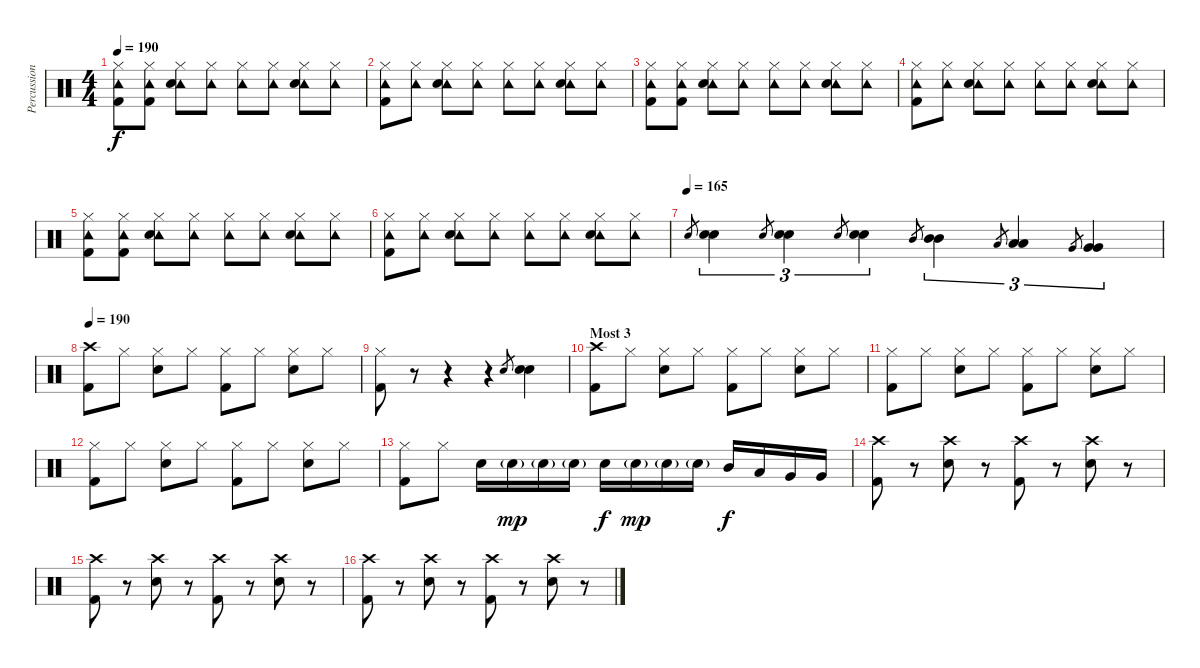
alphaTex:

\track ("Percussion" "Percussion") {instrument percussion}
\staff {score}
\articulation defaults
\ts (4 4)
\tempo 190
\clef neutral
\ks c
("Hi-Hat (closed)" "Tambourine (hit)" "Kick (hit) 2").8{dy f} ("Hi-Hat (closed)" "Tambourine (hit)" "Kick (hit) 2").8 ("Hi-Hat (closed)" "Tambourine (hit)" "Electric Snare (hit)").8 ("Hi-Hat (closed)" "Tambourine (hit)").8 ("Hi-Hat (closed)" "Tambourine (hit)").8 ("Hi-Hat (closed)" "Tambourine (hit)").8 ("Hi-Hat (closed)" "Tambourine (hit)" "Electric Snare (hit)").8 ("Hi-Hat (closed)" "Tambourine (hit)").8 |
("Hi-Hat (closed)" "Tambourine (hit)" "Kick (hit) 2").8 ("Hi-Hat (closed)" "Tambourine (hit)").8 ("Hi-Hat (closed)" "Tambourine (hit)" "Electric Snare (hit)").8 ("Hi-Hat (closed)" "Tambourine (hit)").8 ("Hi-Hat (closed)" "Tambourine (hit)").8 ("Hi-Hat (closed)" "Tambourine (hit)").8 ("Hi-Hat (closed)" "Tambourine (hit)" "Electric Snare (hit)").8 ("Hi-Hat (closed)" "Tambourine (hit)").8 |
("Hi-Hat (closed)" "Tambourine (hit)" "Kick (hit) 2").8 ("Hi-Hat (closed)" "Tambourine (hit)" "Kick (hit) 2").8 ("Hi-Hat (closed)" "Tambourine (hit)" "Electric Snare (hit)").8 ("Hi-Hat (closed)" "Tambourine (hit)").8 ("Hi-Hat (closed)" "Tambourine (hit)").8 ("Hi-Hat (closed)" "Tambourine (hit)").8 ("Hi-Hat (closed)" "Tambourine (hit)" "Electric Snare (hit)").8 ("Hi-Hat (closed)" "Tambourine (hit)").8 |
("Hi-Hat (closed)" "Tambourine (hit)" "Kick (hit) 2").8 ("Hi-Hat (closed)" "Tambourine (hit)").8 ("Hi-Hat (closed)" "Tambourine (hit)" "Electric Snare (hit)").8 ("Hi-Hat (closed)" "Tambourine (hit)").8 ("Hi-Hat (closed)" "Tambourine (hit)").8 ("Hi-Hat (closed)" "Tambourine (hit)").8 ("Hi-Hat (closed)" "Tambourine (hit)" "Electric Snare (hit)").8 ("Hi-Hat (closed)" "Tambourine (hit)").8 |
("Hi-Hat (closed)" "Tambourine (hit)" "Kick (hit) 2").8 ("Hi-Hat (closed)" "Tambourine (hit)" "Kick (hit) 2").8 ("Hi-Hat (closed)" "Tambourine (hit)" "Electric Snare (hit)").8 ("Hi-Hat (closed)" "Tambourine (hit)").8 ("Hi-Hat (closed)" "Tambourine (hit)").8 ("Hi-Hat (closed)" "Tambourine (hit)").8 ("Hi-Hat (closed)" "Tambourine (hit)" "Electric Snare (hit)").8 ("Hi-Hat (closed)" "Tambourine (hit)").8 |
("Hi-Hat (closed)" "Tambourine (hit)" "Kick (hit) 2").8 ("Hi-Hat (closed)" "Tambourine (hit)").8 ("Hi-Hat (closed)" "Tambourine (hit)" "Electric Snare (hit)").8 ("Hi-Hat (closed)" "Tambourine (hit)").8 ("Hi-Hat (closed)" "Tambourine (hit)").8 ("Hi-Hat (closed)" "Tambourine (hit)").8 ("Hi-Hat (closed)" "Tambourine (hit)" "Electric Snare (hit)").8 ("Hi-Hat (closed)" "Tambourine (hit)").8 |
\tempo (165)
"Electric Snare (hit)".8{gr} ("Electric Snare (hit)" "Electric Snare (hit)").4{tu (3 2)} "Electric Snare (hit)".8{gr} ("Electric Snare (hit)" "Electric Snare (hit)").4{tu (3 2)} "Electric Snare (hit)".8{gr} ("Electric Snare (hit)" "Electric Snare (hit)").4{tu (3 2)} "Mid Tom (hit)".8{gr} ("Mid Tom (hit)" "Mid Tom (hit)").4{tu (3 2)} "Low Tom (hit)".8{gr} ("Low Tom (hit)" "Low Tom (hit)").4{tu (3 2)} "Very Low Tom (hit)".8{gr} ("Very Low Tom (hit)" "Very Low Tom (hit)").4{tu (3 2)} |
\tempo 190
("Crash high (hit)" "Kick (hit) 2").8 "Hi-Hat (closed)".8 ("Hi-Hat (closed)" "Electric Snare (hit)").8 "Hi-Hat (closed)".8 ("Hi-Hat (closed)" "Kick (hit) 2").8 "Hi-Hat (closed)".8 ("Hi-Hat (closed)" "Electric Snare (hit)").8 "Hi-Hat (closed)".8 |
("Hi-Hat (closed)" "Kick (hit) 2").8 r.8 r.4 r.4 "Electric Snare (hit)".8{gr} ("Electric Snare (hit)" "Electric Snare (hit)").4 |
\section ("" "Most 3")
("Crash high (hit)" "Kick (hit) 2").8 "Hi-Hat (closed)".8 ("Hi-Hat (closed)" "Electric Snare (hit)").8 "Hi-Hat (closed)".8 ("Hi-Hat (closed)" "Kick (hit) 2").8 "Hi-Hat (closed)".8 ("Hi-Hat (closed)" "Electric Snare (hit)").8 "Hi-Hat (closed)".8 |
("Hi-Hat (closed)" "Kick (hit) 2").8 "Hi-Hat (closed)".8 ("Hi-Hat (closed)" "Electric Snare (hit)").8 "Hi-Hat (closed)".8 ("Hi-Hat (closed)" "Kick (hit) 2").8 "Hi-Hat (closed)".8 ("Hi-Hat (closed)" "Electric Snare (hit)").8 "Hi-Hat (closed)".8 |
("Hi-Hat (closed)" "Kick (hit) 2").8 "Hi-Hat (closed)".8 ("Hi-Hat (closed)" "Electric Snare (hit)").8 "Hi-Hat (closed)".8 ("Hi-Hat (closed)" "Kick (hit) 2").8 "Hi-Hat (closed)".8 ("Hi-Hat (closed)" "Electric Snare (hit)").8 "Hi-Hat (closed)".8 |
("Hi-Hat (closed)" "Kick (hit) 2").8 "Hi-Hat (closed)".8 "Electric Snare (hit)".16 "Electric Snare (hit)"{g}.16{dy mp} "Electric Snare (hit)"{g}.16 "Electric Snare (hit)"{g}.16 "Electric Snare (hit)".16{dy f} "Electric Snare (hit)"{g}.16{dy mp} "Electric Snare (hit)"{g}.16 "Electric Snare (hit)"{g}.16 "Mid Tom (hit)".16{dy f} "Low Tom (hit)".16 "Very Low Tom (hit)".16 "Very Low Tom (hit)".16 |
("Crash high (hit)" "Kick (hit) 2").8 r.8 ("Crash high (hit)" "Electric Snare (hit)").8 r.8 ("Crash high (hit)" "Kick (hit) 2").8 r.8 ("Crash high (hit)" "Electric Snare (hit)").8 r.8 |
("Crash high (hit)" "Kick (hit) 2").8 r.8 ("Crash high (hit)" "Electric Snare (hit)").8 r.8 ("Crash high (hit)" "Kick (hit) 2").8 r.8 ("Crash high (hit)" "Electric Snare (hit)").8 r.8 |
("Crash high (hit)" "Kick (hit) 2").8 r.8 ("Crash high (hit)" "Electric Snare (hit)").8 r.8 ("Crash high (hit)" "Kick (hit) 2").8 r.8 ("Crash high (hit)" "Electric Snare (hit)").8 r.8
